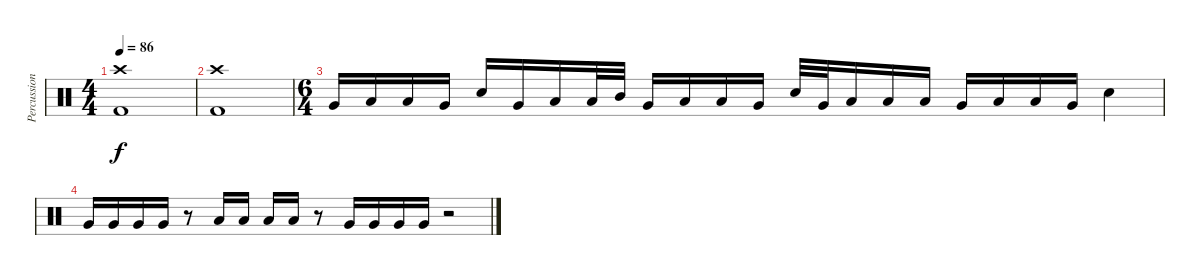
\track ("Percussion" "Percussion") {instrument percussion}
\staff {score}
\articulation defaults
\ts (4 4)
\tempo 86
\clef neutral
\ks c
("Crash high (hit)" "Kick (hit) 2").1{dy f} |
("Crash high (hit)" "Kick (hit) 2").1 |
\ts (6 4)
"Very Low Tom (hit)".16 "Low Floor Tom (hit)".16 "Low Floor Tom (hit)".16 "Very Low Tom (hit)".16 "Electric Snare (hit)".16 "Very Low Tom (hit)".16 "Low Floor Tom (hit)".16 "Low Tom (hit)".32 "Mid Tom (hit)".32 "Very Low Tom (hit)".16 "Low Floor Tom (hit)".16 "Low Floor Tom (hit)".16 "Very Low Tom (hit)".16 "Electric Snare (hit)".32 "Very Low Tom (hit)".32 "Low Floor Tom (hit)".16 "Low Tom (hit)".16 "Low Floor Tom (hit)".16 "Very Low Tom (hit)".16 "Low Floor Tom (hit)".16 "Low Floor Tom (hit)".16 "Very Low Tom (hit)".16 "Electric Snare (hit)".4 |
"Very Low Tom (hit)".16 "Very Low Tom (hit)".16 "Very Low Tom (hit)".16 "Very Low Tom (hit)".16 r.8 "Low Floor Tom (hit)".16 "Low Floor Tom (hit)".16 "Low Floor Tom (hit)".16 "Low Floor Tom (hit)".16 r.8 "Very Low Tom (hit)".16 "Very Low Tom (hit)".16 "Very Low Tom (hit)".16 "Very Low Tom (hit)".16 r.2
